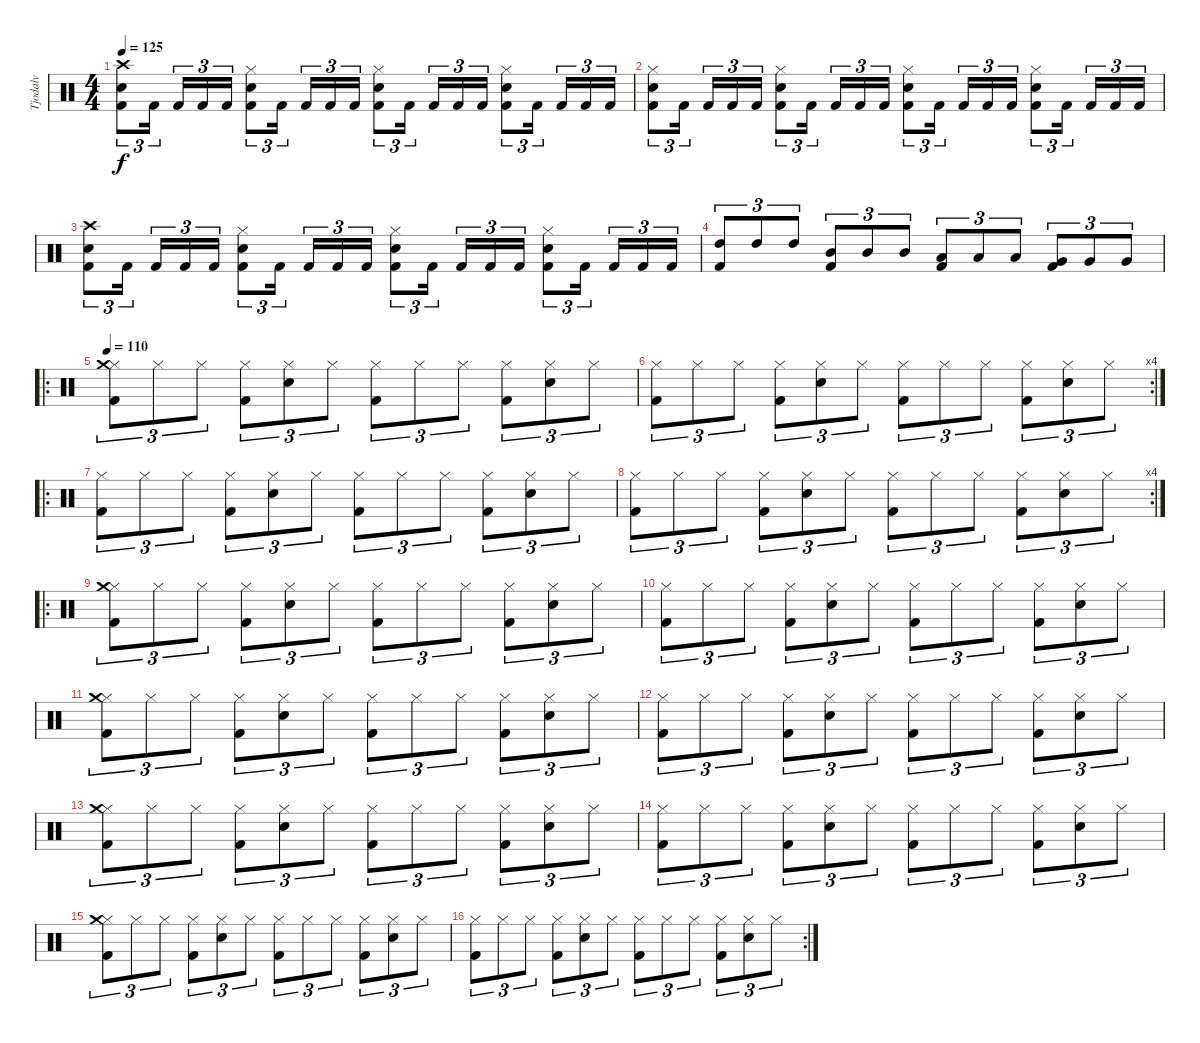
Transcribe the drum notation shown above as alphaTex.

\track ("Tjodalv" "Tjodalv") {instrument percussion}
\staff {score}
\articulation defaults
\ts (4 4)
\tempo 125
\clef neutral
\ks c
("Snare (hit) 2" "Kick (hit) 2" "Crash high (hit)").8{tu (3 2) dy f} "Kick (hit) 2".16{tu (3 2)} "Kick (hit) 2".16{tu (3 2)} "Kick (hit) 2".16{tu (3 2)} "Kick (hit) 2".16{tu (3 2)} ("Snare (hit) 2" "Kick (hit) 2" "Hi-Hat (closed)").8{tu (3 2)} "Kick (hit) 2".16{tu (3 2)} "Kick (hit) 2".16{tu (3 2)} "Kick (hit) 2".16{tu (3 2)} "Kick (hit) 2".16{tu (3 2)} ("Snare (hit) 2" "Kick (hit) 2" "Hi-Hat (closed)").8{tu (3 2)} "Kick (hit) 2".16{tu (3 2)} "Kick (hit) 2".16{tu (3 2)} "Kick (hit) 2".16{tu (3 2)} "Kick (hit) 2".16{tu (3 2)} ("Snare (hit) 2" "Kick (hit) 2" "Hi-Hat (closed)").8{tu (3 2)} "Kick (hit) 2".16{tu (3 2)} "Kick (hit) 2".16{tu (3 2)} "Kick (hit) 2".16{tu (3 2)} "Kick (hit) 2".16{tu (3 2)} |
("Snare (hit) 2" "Kick (hit) 2" "Hi-Hat (closed)").8{tu (3 2)} "Kick (hit) 2".16{tu (3 2)} "Kick (hit) 2".16{tu (3 2)} "Kick (hit) 2".16{tu (3 2)} "Kick (hit) 2".16{tu (3 2)} ("Snare (hit) 2" "Kick (hit) 2" "Hi-Hat (closed)").8{tu (3 2)} "Kick (hit) 2".16{tu (3 2)} "Kick (hit) 2".16{tu (3 2)} "Kick (hit) 2".16{tu (3 2)} "Kick (hit) 2".16{tu (3 2)} ("Snare (hit) 2" "Kick (hit) 2" "Hi-Hat (closed)").8{tu (3 2)} "Kick (hit) 2".16{tu (3 2)} "Kick (hit) 2".16{tu (3 2)} "Kick (hit) 2".16{tu (3 2)} "Kick (hit) 2".16{tu (3 2)} ("Snare (hit) 2" "Kick (hit) 2" "Hi-Hat (closed)").8{tu (3 2)} "Kick (hit) 2".16{tu (3 2)} "Kick (hit) 2".16{tu (3 2)} "Kick (hit) 2".16{tu (3 2)} "Kick (hit) 2".16{tu (3 2)} |
("Snare (hit) 2" "Kick (hit) 2" "Crash high (hit)").8{tu (3 2)} "Kick (hit) 2".16{tu (3 2)} "Kick (hit) 2".16{tu (3 2)} "Kick (hit) 2".16{tu (3 2)} "Kick (hit) 2".16{tu (3 2)} ("Snare (hit) 2" "Kick (hit) 2" "Hi-Hat (closed)").8{tu (3 2)} "Kick (hit) 2".16{tu (3 2)} "Kick (hit) 2".16{tu (3 2)} "Kick (hit) 2".16{tu (3 2)} "Kick (hit) 2".16{tu (3 2)} ("Snare (hit) 2" "Kick (hit) 2" "Hi-Hat (closed)").8{tu (3 2)} "Kick (hit) 2".16{tu (3 2)} "Kick (hit) 2".16{tu (3 2)} "Kick (hit) 2".16{tu (3 2)} "Kick (hit) 2".16{tu (3 2)} ("Snare (hit) 2" "Kick (hit) 2" "Hi-Hat (closed)").8{tu (3 2)} "Kick (hit) 2".16{tu (3 2)} "Kick (hit) 2".16{tu (3 2)} "Kick (hit) 2".16{tu (3 2)} "Kick (hit) 2".16{tu (3 2)} |
("High Tom (hit)" "Kick (hit) 2").8{tu (3 2)} "High Tom (hit)".8{tu (3 2)} "High Tom (hit)".8{tu (3 2)} ("Mid Tom (hit)" "Kick (hit) 2").8{tu (3 2)} "Mid Tom (hit)".8{tu (3 2)} "Mid Tom (hit)".8{tu (3 2)} ("Low Tom (hit)" "Kick (hit) 2").8{tu (3 2)} "Low Tom (hit)".8{tu (3 2)} "Low Tom (hit)".8{tu (3 2)} ("Very Low Tom (hit)" "Kick (hit) 2").8{tu (3 2)} "Very Low Tom (hit)".8{tu (3 2)} "Very Low Tom (hit)".8{tu (3 2)} |
\ro
\tempo 110
("Kick (hit) 2" "Hi-Hat (closed)" "Crash medium (hit)").8{tu (3 2)} "Hi-Hat (closed)".8{tu (3 2)} "Hi-Hat (closed)".8{tu (3 2)} ("Kick (hit) 2" "Hi-Hat (closed)").8{tu (3 2)} ("Snare (hit) 2" "Hi-Hat (closed)").8{tu (3 2)} "Hi-Hat (closed)".8{tu (3 2)} ("Kick (hit) 2" "Hi-Hat (closed)").8{tu (3 2)} "Hi-Hat (closed)".8{tu (3 2)} "Hi-Hat (closed)".8{tu (3 2)} ("Kick (hit) 2" "Hi-Hat (closed)").8{tu (3 2)} ("Snare (hit) 2" "Hi-Hat (closed)").8{tu (3 2)} "Hi-Hat (closed)".8{tu (3 2)} |
\rc 4
("Kick (hit) 2" "Hi-Hat (closed)").8{tu (3 2)} "Hi-Hat (closed)".8{tu (3 2)} "Hi-Hat (closed)".8{tu (3 2)} ("Kick (hit) 2" "Hi-Hat (closed)").8{tu (3 2)} ("Snare (hit) 2" "Hi-Hat (closed)").8{tu (3 2)} "Hi-Hat (closed)".8{tu (3 2)} ("Kick (hit) 2" "Hi-Hat (closed)").8{tu (3 2)} "Hi-Hat (closed)".8{tu (3 2)} "Hi-Hat (closed)".8{tu (3 2)} ("Kick (hit) 2" "Hi-Hat (closed)").8{tu (3 2)} ("Snare (hit) 2" "Hi-Hat (closed)").8{tu (3 2)} "Hi-Hat (closed)".8{tu (3 2)} |
\ro
("Kick (hit) 2" "Hi-Hat (closed)").8{tu (3 2)} "Hi-Hat (closed)".8{tu (3 2)} "Hi-Hat (closed)".8{tu (3 2)} ("Kick (hit) 2" "Hi-Hat (closed)").8{tu (3 2)} ("Snare (hit) 2" "Hi-Hat (closed)").8{tu (3 2)} "Hi-Hat (closed)".8{tu (3 2)} ("Kick (hit) 2" "Hi-Hat (closed)").8{tu (3 2)} "Hi-Hat (closed)".8{tu (3 2)} "Hi-Hat (closed)".8{tu (3 2)} ("Kick (hit) 2" "Hi-Hat (closed)").8{tu (3 2)} ("Snare (hit) 2" "Hi-Hat (closed)").8{tu (3 2)} "Hi-Hat (closed)".8{tu (3 2)} |
\rc 4
("Kick (hit) 2" "Hi-Hat (closed)").8{tu (3 2)} "Hi-Hat (closed)".8{tu (3 2)} "Hi-Hat (closed)".8{tu (3 2)} ("Kick (hit) 2" "Hi-Hat (closed)").8{tu (3 2)} ("Snare (hit) 2" "Hi-Hat (closed)").8{tu (3 2)} "Hi-Hat (closed)".8{tu (3 2)} ("Kick (hit) 2" "Hi-Hat (closed)").8{tu (3 2)} "Hi-Hat (closed)".8{tu (3 2)} "Hi-Hat (closed)".8{tu (3 2)} ("Kick (hit) 2" "Hi-Hat (closed)").8{tu (3 2)} ("Snare (hit) 2" "Hi-Hat (closed)").8{tu (3 2)} "Hi-Hat (closed)".8{tu (3 2)} |
\ro
("Kick (hit) 2" "Hi-Hat (closed)" "Crash medium (hit)").8{tu (3 2)} "Hi-Hat (closed)".8{tu (3 2)} "Hi-Hat (closed)".8{tu (3 2)} ("Kick (hit) 2" "Hi-Hat (closed)").8{tu (3 2)} ("Snare (hit) 2" "Hi-Hat (closed)").8{tu (3 2)} "Hi-Hat (closed)".8{tu (3 2)} ("Kick (hit) 2" "Hi-Hat (closed)").8{tu (3 2)} "Hi-Hat (closed)".8{tu (3 2)} "Hi-Hat (closed)".8{tu (3 2)} ("Kick (hit) 2" "Hi-Hat (closed)").8{tu (3 2)} ("Snare (hit) 2" "Hi-Hat (closed)").8{tu (3 2)} "Hi-Hat (closed)".8{tu (3 2)} |
("Kick (hit) 2" "Hi-Hat (closed)").8{tu (3 2)} "Hi-Hat (closed)".8{tu (3 2)} "Hi-Hat (closed)".8{tu (3 2)} ("Kick (hit) 2" "Hi-Hat (closed)").8{tu (3 2)} ("Snare (hit) 2" "Hi-Hat (closed)").8{tu (3 2)} "Hi-Hat (closed)".8{tu (3 2)} ("Kick (hit) 2" "Hi-Hat (closed)").8{tu (3 2)} "Hi-Hat (closed)".8{tu (3 2)} "Hi-Hat (closed)".8{tu (3 2)} ("Kick (hit) 2" "Hi-Hat (closed)").8{tu (3 2)} ("Snare (hit) 2" "Hi-Hat (closed)").8{tu (3 2)} "Hi-Hat (closed)".8{tu (3 2)} |
("Kick (hit) 2" "Hi-Hat (closed)" "Crash medium (hit)").8{tu (3 2)} "Hi-Hat (closed)".8{tu (3 2)} "Hi-Hat (closed)".8{tu (3 2)} ("Kick (hit) 2" "Hi-Hat (closed)").8{tu (3 2)} ("Snare (hit) 2" "Hi-Hat (closed)").8{tu (3 2)} "Hi-Hat (closed)".8{tu (3 2)} ("Kick (hit) 2" "Hi-Hat (closed)").8{tu (3 2)} "Hi-Hat (closed)".8{tu (3 2)} "Hi-Hat (closed)".8{tu (3 2)} ("Kick (hit) 2" "Hi-Hat (closed)").8{tu (3 2)} ("Snare (hit) 2" "Hi-Hat (closed)").8{tu (3 2)} "Hi-Hat (closed)".8{tu (3 2)} |
("Kick (hit) 2" "Hi-Hat (closed)").8{tu (3 2)} "Hi-Hat (closed)".8{tu (3 2)} "Hi-Hat (closed)".8{tu (3 2)} ("Kick (hit) 2" "Hi-Hat (closed)").8{tu (3 2)} ("Snare (hit) 2" "Hi-Hat (closed)").8{tu (3 2)} "Hi-Hat (closed)".8{tu (3 2)} ("Kick (hit) 2" "Hi-Hat (closed)").8{tu (3 2)} "Hi-Hat (closed)".8{tu (3 2)} "Hi-Hat (closed)".8{tu (3 2)} ("Kick (hit) 2" "Hi-Hat (closed)").8{tu (3 2)} ("Snare (hit) 2" "Hi-Hat (closed)").8{tu (3 2)} "Hi-Hat (closed)".8{tu (3 2)} |
("Kick (hit) 2" "Hi-Hat (closed)" "Crash medium (hit)").8{tu (3 2)} "Hi-Hat (closed)".8{tu (3 2)} "Hi-Hat (closed)".8{tu (3 2)} ("Kick (hit) 2" "Hi-Hat (closed)").8{tu (3 2)} ("Snare (hit) 2" "Hi-Hat (closed)").8{tu (3 2)} "Hi-Hat (closed)".8{tu (3 2)} ("Kick (hit) 2" "Hi-Hat (closed)").8{tu (3 2)} "Hi-Hat (closed)".8{tu (3 2)} "Hi-Hat (closed)".8{tu (3 2)} ("Kick (hit) 2" "Hi-Hat (closed)").8{tu (3 2)} ("Snare (hit) 2" "Hi-Hat (closed)").8{tu (3 2)} "Hi-Hat (closed)".8{tu (3 2)} |
("Kick (hit) 2" "Hi-Hat (closed)").8{tu (3 2)} "Hi-Hat (closed)".8{tu (3 2)} "Hi-Hat (closed)".8{tu (3 2)} ("Kick (hit) 2" "Hi-Hat (closed)").8{tu (3 2)} ("Snare (hit) 2" "Hi-Hat (closed)").8{tu (3 2)} "Hi-Hat (closed)".8{tu (3 2)} ("Kick (hit) 2" "Hi-Hat (closed)").8{tu (3 2)} "Hi-Hat (closed)".8{tu (3 2)} "Hi-Hat (closed)".8{tu (3 2)} ("Kick (hit) 2" "Hi-Hat (closed)").8{tu (3 2)} ("Snare (hit) 2" "Hi-Hat (closed)").8{tu (3 2)} "Hi-Hat (closed)".8{tu (3 2)} |
("Kick (hit) 2" "Hi-Hat (closed)" "Crash medium (hit)").8{tu (3 2)} "Hi-Hat (closed)".8{tu (3 2)} "Hi-Hat (closed)".8{tu (3 2)} ("Kick (hit) 2" "Hi-Hat (closed)").8{tu (3 2)} ("Snare (hit) 2" "Hi-Hat (closed)").8{tu (3 2)} "Hi-Hat (closed)".8{tu (3 2)} ("Kick (hit) 2" "Hi-Hat (closed)").8{tu (3 2)} "Hi-Hat (closed)".8{tu (3 2)} "Hi-Hat (closed)".8{tu (3 2)} ("Kick (hit) 2" "Hi-Hat (closed)").8{tu (3 2)} ("Snare (hit) 2" "Hi-Hat (closed)").8{tu (3 2)} "Hi-Hat (closed)".8{tu (3 2)} |
\rc 2
("Kick (hit) 2" "Hi-Hat (closed)").8{tu (3 2)} "Hi-Hat (closed)".8{tu (3 2)} "Hi-Hat (closed)".8{tu (3 2)} ("Kick (hit) 2" "Hi-Hat (closed)").8{tu (3 2)} ("Snare (hit) 2" "Hi-Hat (closed)").8{tu (3 2)} "Hi-Hat (closed)".8{tu (3 2)} ("Kick (hit) 2" "Hi-Hat (closed)").8{tu (3 2)} "Hi-Hat (closed)".8{tu (3 2)} "Hi-Hat (closed)".8{tu (3 2)} ("Kick (hit) 2" "Hi-Hat (closed)").8{tu (3 2)} ("Snare (hit) 2" "Hi-Hat (closed)").8{tu (3 2)} "Hi-Hat (closed)".8{tu (3 2)}
